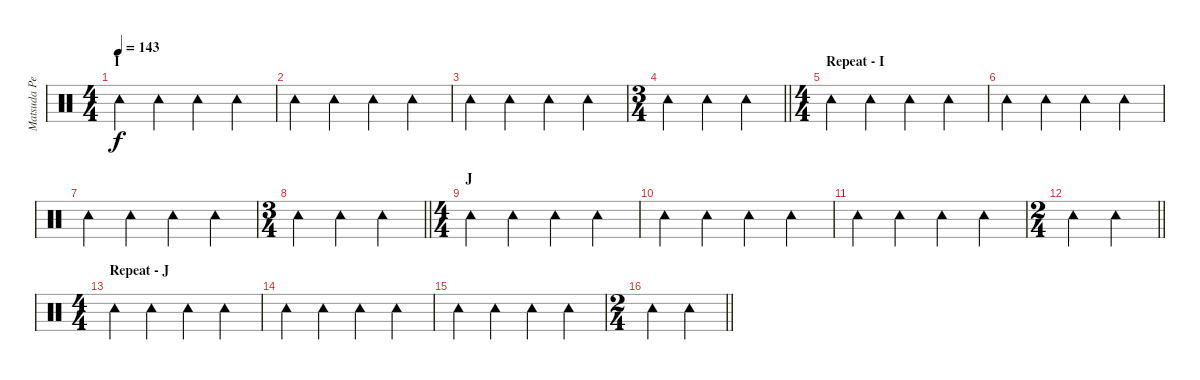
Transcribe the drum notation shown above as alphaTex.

\track ("Matsuda Percussion" "Matsuda Pe") {instrument percussion}
\staff {score}
\articulation defaults
\ts (4 4)
\section ("" "I")
\tempo 143
\clef neutral
\ks c "Tambourine (hit)".4{dy f} "Tambourine (hit)".4 "Tambourine (hit)".4 "Tambourine (hit)".4
|
"Tambourine (hit)".4 "Tambourine (hit)".4 "Tambourine (hit)".4 "Tambourine (hit)".4 |
"Tambourine (hit)".4 "Tambourine (hit)".4 "Tambourine (hit)".4 "Tambourine (hit)".4 |
\ts (3 4)
\barLineRight lightlight "Tambourine (hit)".4 "Tambourine (hit)".4 "Tambourine (hit)".4
|
\ts (4 4)
\section ("" "Repeat - I")
"Tambourine (hit)".4 "Tambourine (hit)".4 "Tambourine (hit)".4 "Tambourine (hit)".4 |
"Tambourine (hit)".4 "Tambourine (hit)".4 "Tambourine (hit)".4 "Tambourine (hit)".4 |
"Tambourine (hit)".4 "Tambourine (hit)".4 "Tambourine (hit)".4 "Tambourine (hit)".4 |
\ts (3 4)
\barLineRight lightlight "Tambourine (hit)".4 "Tambourine (hit)".4 "Tambourine (hit)".4
|
\ts (4 4)
\section ("" "J")
"Tambourine (hit)".4 "Tambourine (hit)".4 "Tambourine (hit)".4 "Tambourine (hit)".4 |
"Tambourine (hit)".4 "Tambourine (hit)".4 "Tambourine (hit)".4 "Tambourine (hit)".4 |
"Tambourine (hit)".4 "Tambourine (hit)".4 "Tambourine (hit)".4 "Tambourine (hit)".4 |
\ts (2 4)
\barLineRight lightlight "Tambourine (hit)".4 "Tambourine (hit)".4
|
\ts (4 4)
\section ("" "Repeat - J")
"Tambourine (hit)".4 "Tambourine (hit)".4 "Tambourine (hit)".4 "Tambourine (hit)".4 |
"Tambourine (hit)".4 "Tambourine (hit)".4 "Tambourine (hit)".4 "Tambourine (hit)".4 |
"Tambourine (hit)".4 "Tambourine (hit)".4 "Tambourine (hit)".4 "Tambourine (hit)".4 |
\ts (2 4)
\barLineRight lightlight "Tambourine (hit)".4 "Tambourine (hit)".4
